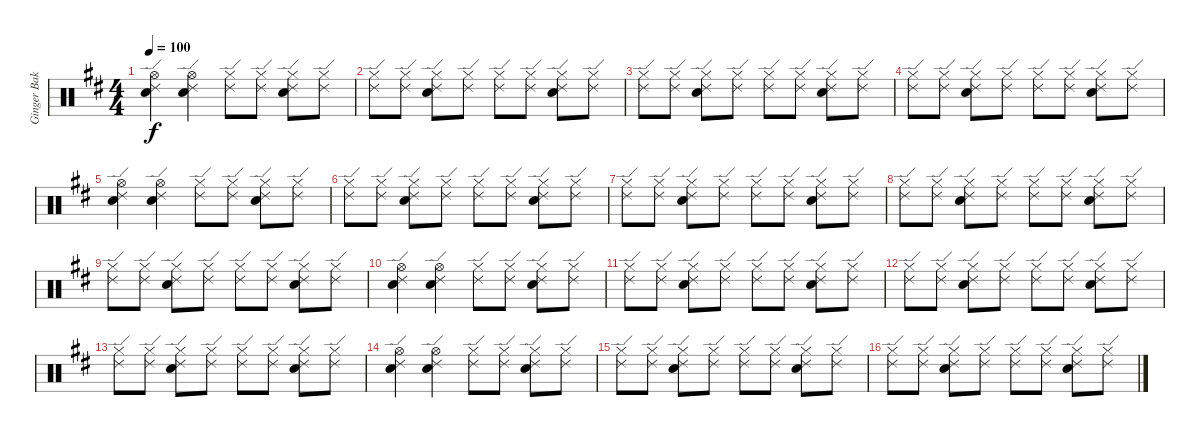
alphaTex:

\track ("Ginger Baker" "Ginger Bak") {instrument percussion}
\staff {score}
\articulation defaults
\ts (4 4)
\tempo 100
\clef neutral
\ks d
("Hi-Hat (open)" "Ride (edge) 2" "Electric Snare (hit)").4{dy f} ("Hi-Hat (open)" "Ride (edge) 2" "Electric Snare (hit)").4 ("Hi-Hat (closed)" "Ride (edge) 2").8 ("Hi-Hat (closed)" "Ride (edge) 2").8 ("Hi-Hat (closed)" "Ride (edge) 2" "Electric Snare (hit)").8 ("Hi-Hat (closed)" "Ride (edge) 2").8 |
("Hi-Hat (closed)" "Ride (edge) 2").8 ("Hi-Hat (closed)" "Ride (edge) 2").8 ("Hi-Hat (closed)" "Ride (edge) 2" "Electric Snare (hit)").8 ("Hi-Hat (closed)" "Ride (edge) 2").8 ("Hi-Hat (closed)" "Ride (edge) 2").8 ("Hi-Hat (closed)" "Ride (edge) 2").8 ("Hi-Hat (closed)" "Ride (edge) 2" "Electric Snare (hit)").8 ("Hi-Hat (closed)" "Ride (edge) 2").8 |
("Hi-Hat (closed)" "Ride (edge) 2").8 ("Hi-Hat (closed)" "Ride (edge) 2").8 ("Hi-Hat (closed)" "Ride (edge) 2" "Electric Snare (hit)").8 ("Hi-Hat (closed)" "Ride (edge) 2").8 ("Hi-Hat (closed)" "Ride (edge) 2").8 ("Hi-Hat (closed)" "Ride (edge) 2").8 ("Hi-Hat (closed)" "Ride (edge) 2" "Electric Snare (hit)").8 ("Hi-Hat (closed)" "Ride (edge) 2").8 |
("Hi-Hat (closed)" "Ride (edge) 2").8 ("Hi-Hat (closed)" "Ride (edge) 2").8 ("Hi-Hat (closed)" "Ride (edge) 2" "Electric Snare (hit)").8 ("Hi-Hat (closed)" "Ride (edge) 2").8 ("Hi-Hat (closed)" "Ride (edge) 2").8 ("Hi-Hat (closed)" "Ride (edge) 2").8 ("Hi-Hat (closed)" "Ride (edge) 2" "Electric Snare (hit)").8 ("Hi-Hat (closed)" "Ride (edge) 2").8 |
("Hi-Hat (open)" "Ride (edge) 2" "Electric Snare (hit)").4 ("Hi-Hat (open)" "Ride (edge) 2" "Electric Snare (hit)").4 ("Hi-Hat (closed)" "Ride (edge) 2").8 ("Hi-Hat (closed)" "Ride (edge) 2").8 ("Hi-Hat (closed)" "Ride (edge) 2" "Electric Snare (hit)").8 ("Hi-Hat (closed)" "Ride (edge) 2").8 |
("Hi-Hat (closed)" "Ride (edge) 2").8 ("Hi-Hat (closed)" "Ride (edge) 2").8 ("Hi-Hat (closed)" "Ride (edge) 2" "Electric Snare (hit)").8 ("Hi-Hat (closed)" "Ride (edge) 2").8 ("Hi-Hat (closed)" "Ride (edge) 2").8 ("Hi-Hat (closed)" "Ride (edge) 2").8 ("Hi-Hat (closed)" "Ride (edge) 2" "Electric Snare (hit)").8 ("Hi-Hat (closed)" "Ride (edge) 2").8 |
("Hi-Hat (closed)" "Ride (edge) 2").8 ("Hi-Hat (closed)" "Ride (edge) 2").8 ("Hi-Hat (closed)" "Ride (edge) 2" "Electric Snare (hit)").8 ("Hi-Hat (closed)" "Ride (edge) 2").8 ("Hi-Hat (closed)" "Ride (edge) 2").8 ("Hi-Hat (closed)" "Ride (edge) 2").8 ("Hi-Hat (closed)" "Ride (edge) 2" "Electric Snare (hit)").8 ("Hi-Hat (closed)" "Ride (edge) 2").8 |
("Hi-Hat (closed)" "Ride (edge) 2").8 ("Hi-Hat (closed)" "Ride (edge) 2").8 ("Hi-Hat (closed)" "Ride (edge) 2" "Electric Snare (hit)").8 ("Hi-Hat (closed)" "Ride (edge) 2").8 ("Hi-Hat (closed)" "Ride (edge) 2").8 ("Hi-Hat (closed)" "Ride (edge) 2").8 ("Hi-Hat (closed)" "Ride (edge) 2" "Electric Snare (hit)").8 ("Hi-Hat (closed)" "Ride (edge) 2").8 |
("Hi-Hat (closed)" "Ride (edge) 2").8 ("Hi-Hat (closed)" "Ride (edge) 2").8 ("Hi-Hat (closed)" "Ride (edge) 2" "Electric Snare (hit)").8 ("Hi-Hat (closed)" "Ride (edge) 2").8 ("Hi-Hat (closed)" "Ride (edge) 2").8 ("Hi-Hat (closed)" "Ride (edge) 2").8 ("Hi-Hat (closed)" "Ride (edge) 2" "Electric Snare (hit)").8 ("Hi-Hat (closed)" "Ride (edge) 2").8 |
("Hi-Hat (open)" "Ride (edge) 2" "Electric Snare (hit)").4 ("Hi-Hat (open)" "Ride (edge) 2" "Electric Snare (hit)").4 ("Hi-Hat (closed)" "Ride (edge) 2").8 ("Hi-Hat (closed)" "Ride (edge) 2").8 ("Hi-Hat (closed)" "Ride (edge) 2" "Electric Snare (hit)").8 ("Hi-Hat (closed)" "Ride (edge) 2").8 |
("Hi-Hat (closed)" "Ride (edge) 2").8 ("Hi-Hat (closed)" "Ride (edge) 2").8 ("Hi-Hat (closed)" "Ride (edge) 2" "Electric Snare (hit)").8 ("Hi-Hat (closed)" "Ride (edge) 2").8 ("Hi-Hat (closed)" "Ride (edge) 2").8 ("Hi-Hat (closed)" "Ride (edge) 2").8 ("Hi-Hat (closed)" "Ride (edge) 2" "Electric Snare (hit)").8 ("Hi-Hat (closed)" "Ride (edge) 2").8 |
("Hi-Hat (closed)" "Ride (edge) 2").8 ("Hi-Hat (closed)" "Ride (edge) 2").8 ("Hi-Hat (closed)" "Ride (edge) 2" "Electric Snare (hit)").8 ("Hi-Hat (closed)" "Ride (edge) 2").8 ("Hi-Hat (closed)" "Ride (edge) 2").8 ("Hi-Hat (closed)" "Ride (edge) 2").8 ("Hi-Hat (closed)" "Ride (edge) 2" "Electric Snare (hit)").8 ("Hi-Hat (closed)" "Ride (edge) 2").8 |
("Hi-Hat (closed)" "Ride (edge) 2").8 ("Hi-Hat (closed)" "Ride (edge) 2").8 ("Hi-Hat (closed)" "Ride (edge) 2" "Electric Snare (hit)").8 ("Hi-Hat (closed)" "Ride (edge) 2").8 ("Hi-Hat (closed)" "Ride (edge) 2").8 ("Hi-Hat (closed)" "Ride (edge) 2").8 ("Hi-Hat (closed)" "Ride (edge) 2" "Electric Snare (hit)").8 ("Hi-Hat (closed)" "Ride (edge) 2").8 |
("Hi-Hat (open)" "Ride (edge) 2" "Electric Snare (hit)").4 ("Hi-Hat (open)" "Ride (edge) 2" "Electric Snare (hit)").4 ("Hi-Hat (closed)" "Ride (edge) 2").8 ("Hi-Hat (closed)" "Ride (edge) 2").8 ("Hi-Hat (closed)" "Ride (edge) 2" "Electric Snare (hit)").8 ("Hi-Hat (closed)" "Ride (edge) 2").8 |
("Hi-Hat (closed)" "Ride (edge) 2").8 ("Hi-Hat (closed)" "Ride (edge) 2").8 ("Hi-Hat (closed)" "Ride (edge) 2" "Electric Snare (hit)").8 ("Hi-Hat (closed)" "Ride (edge) 2").8 ("Hi-Hat (closed)" "Ride (edge) 2").8 ("Hi-Hat (closed)" "Ride (edge) 2").8 ("Hi-Hat (closed)" "Ride (edge) 2" "Electric Snare (hit)").8 ("Hi-Hat (closed)" "Ride (edge) 2").8 |
("Hi-Hat (closed)" "Ride (edge) 2").8 ("Hi-Hat (closed)" "Ride (edge) 2").8 ("Hi-Hat (closed)" "Ride (edge) 2" "Electric Snare (hit)").8 ("Hi-Hat (closed)" "Ride (edge) 2").8 ("Hi-Hat (closed)" "Ride (edge) 2").8 ("Hi-Hat (closed)" "Ride (edge) 2").8 ("Hi-Hat (closed)" "Ride (edge) 2" "Electric Snare (hit)").8 ("Hi-Hat (closed)" "Ride (edge) 2").8
